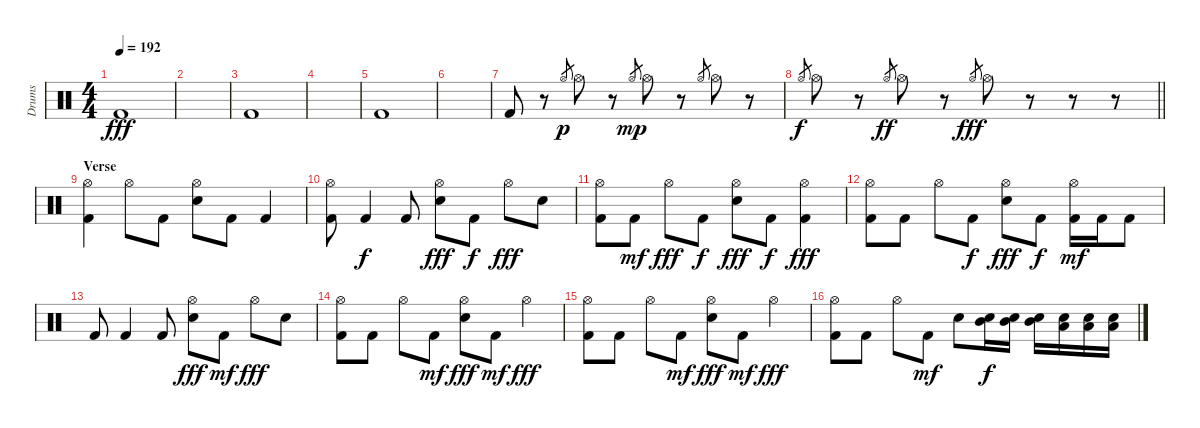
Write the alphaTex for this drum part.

\track ("Drums" "Drums") {instrument percussion}
\staff {score}
\articulation defaults
\ts (4 4)
\tempo 192
\clef neutral
\ks c "Kick (hit) 2".1{dy fff}
|
|
"Kick (hit) 2".1 |
|
"Kick (hit) 2".1 |
|
"Kick (hit) 2".8 r.8 "Hi-Hat (open)".8{gr dy p} "Hi-Hat (open)".8 r.8 "Hi-Hat (open)".8{gr dy mp} "Hi-Hat (open)".8 r.8 "Hi-Hat (open)".8{gr} "Hi-Hat (open)".8 r.8 |
\barLineRight lightlight "Hi-Hat (open)".8{gr dy f} "Hi-Hat (open)".8
r.8 "Hi-Hat (open)".8{gr dy ff} "Hi-Hat (open)".8 r.8 "Hi-Hat (open)".8{gr dy fff} "Hi-Hat (open)".8 r.8 r.8 r.8 |
\section ("" "Verse")
("Hi-Hat (open)" "Kick (hit) 2").4 "Hi-Hat (open)".8 "Kick (hit) 2".8 ("Hi-Hat (open)" "Electric Snare (hit)").8 "Kick (hit) 2".8 "Kick (hit) 2".4 |
("Kick (hit) 2" "Hi-Hat (open)").8 "Kick (hit) 2".4{dy f} "Kick (hit) 2".8 ("Electric Snare (hit)" "Hi-Hat (open)").8{dy fff} "Kick (hit) 2".8{dy f} "Hi-Hat (open)".8{dy fff} "Electric Snare (hit)".8 |
("Kick (hit) 2" "Hi-Hat (open)").8 "Kick (hit) 2".8{dy mf} "Hi-Hat (open)".8{dy fff} "Kick (hit) 2".8{dy f} ("Electric Snare (hit)" "Hi-Hat (open)").8{dy fff} "Kick (hit) 2".8{dy f} ("Kick (hit) 2" "Hi-Hat (open)").4{dy fff} |
("Kick (hit) 2" "Hi-Hat (open)").8 "Kick (hit) 2".8 "Hi-Hat (open)".8 "Kick (hit) 2".8{dy f} ("Electric Snare (hit)" "Hi-Hat (open)").8{dy fff} "Kick (hit) 2".8{dy f} ("Hi-Hat (open)" "Kick (hit) 2").16{dy mf} "Kick (hit) 2".16 "Kick (hit) 2".8 |
"Kick (hit) 2".8 "Kick (hit) 2".4 "Kick (hit) 2".8 ("Electric Snare (hit)" "Hi-Hat (open)").8{dy fff} "Kick (hit) 2".8{dy mf} "Hi-Hat (open)".8{dy fff} "Electric Snare (hit)".8 |
("Kick (hit) 2" "Hi-Hat (open)").8 "Kick (hit) 2".8 "Hi-Hat (open)".8 "Kick (hit) 2".8{dy mf} ("Electric Snare (hit)" "Hi-Hat (open)").8{dy fff} "Kick (hit) 2".8{dy mf} "Hi-Hat (open)".4{dy fff} |
("Kick (hit) 2" "Hi-Hat (open)").8 "Kick (hit) 2".8 "Hi-Hat (open)".8 "Kick (hit) 2".8{dy mf} ("Electric Snare (hit)" "Hi-Hat (open)").8{dy fff} "Kick (hit) 2".8{dy mf} "Hi-Hat (open)".4{dy fff} |
("Kick (hit) 2" "Hi-Hat (open)").8 "Kick (hit) 2".8 "Hi-Hat (open)".8 "Kick (hit) 2".8{dy mf} "Electric Snare (hit)".8 ("Electric Snare (hit)" "Mid Tom (hit)").16{dy f} ("Electric Snare (hit)" "Mid Tom (hit)").16 ("Electric Snare (hit)" "Mid Tom (hit)").16 ("Electric Snare (hit)" "Low Tom (hit)").16 ("Electric Snare (hit)" "Low Tom (hit)").16 ("Electric Snare (hit)" "Low Tom (hit)").16
